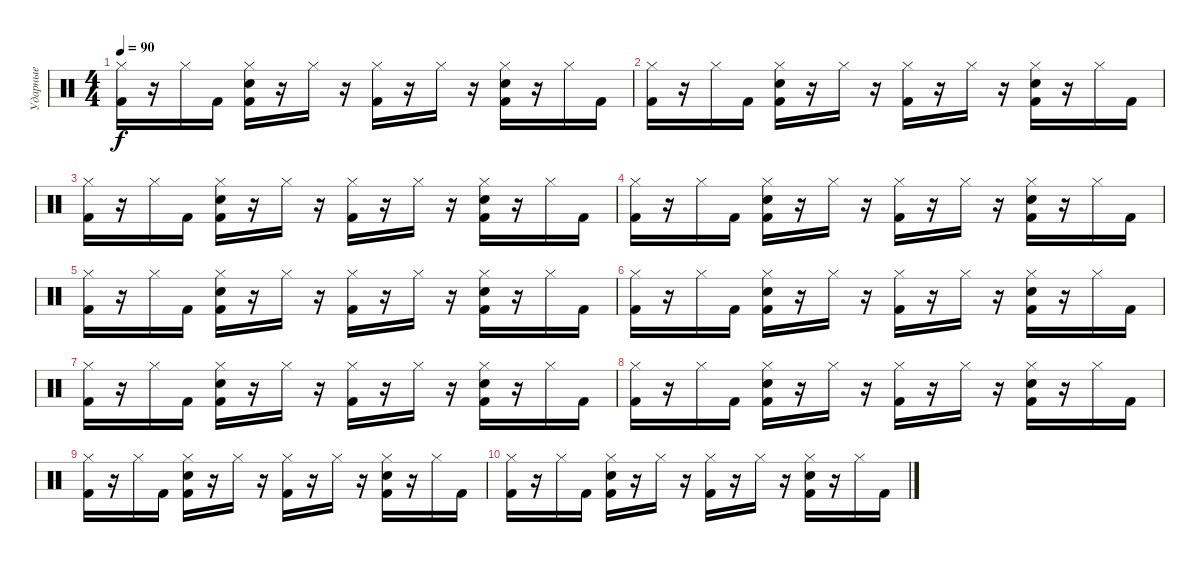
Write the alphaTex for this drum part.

\track ("Ударные" "Ударные") {instrument percussion}
\staff {score}
\articulation defaults
\ts (4 4)
\tempo 90
\clef neutral
\ks c
("Hi-Hat (closed)" "Kick (hit) 2").16{dy f} r.16 "Hi-Hat (closed)".16 "Kick (hit) 2".16 ("Hi-Hat (closed)" "Electric Snare (hit)" "Kick (hit) 2").16 r.16 "Hi-Hat (closed)".16 r.16 ("Hi-Hat (closed)" "Kick (hit) 2").16 r.16 "Hi-Hat (closed)".16 r.16 ("Hi-Hat (closed)" "Electric Snare (hit)" "Kick (hit) 2").16 r.16 "Hi-Hat (closed)".16 "Kick (hit) 2".16 |
("Hi-Hat (closed)" "Kick (hit) 2").16 r.16 "Hi-Hat (closed)".16 "Kick (hit) 2".16 ("Hi-Hat (closed)" "Electric Snare (hit)" "Kick (hit) 2").16 r.16 "Hi-Hat (closed)".16 r.16 ("Hi-Hat (closed)" "Kick (hit) 2").16 r.16 "Hi-Hat (closed)".16 r.16 ("Hi-Hat (closed)" "Electric Snare (hit)" "Kick (hit) 2").16 r.16 "Hi-Hat (closed)".16 "Kick (hit) 2".16 |
("Hi-Hat (closed)" "Kick (hit) 2").16 r.16 "Hi-Hat (closed)".16 "Kick (hit) 2".16 ("Hi-Hat (closed)" "Electric Snare (hit)" "Kick (hit) 2").16 r.16 "Hi-Hat (closed)".16 r.16 ("Hi-Hat (closed)" "Kick (hit) 2").16 r.16 "Hi-Hat (closed)".16 r.16 ("Hi-Hat (closed)" "Electric Snare (hit)" "Kick (hit) 2").16 r.16 "Hi-Hat (closed)".16 "Kick (hit) 2".16 |
("Hi-Hat (closed)" "Kick (hit) 2").16 r.16 "Hi-Hat (closed)".16 "Kick (hit) 2".16 ("Hi-Hat (closed)" "Electric Snare (hit)" "Kick (hit) 2").16 r.16 "Hi-Hat (closed)".16 r.16 ("Hi-Hat (closed)" "Kick (hit) 2").16 r.16 "Hi-Hat (closed)".16 r.16 ("Hi-Hat (closed)" "Electric Snare (hit)" "Kick (hit) 2").16 r.16 "Hi-Hat (closed)".16 "Kick (hit) 2".16 |
("Hi-Hat (closed)" "Kick (hit) 2").16 r.16 "Hi-Hat (closed)".16 "Kick (hit) 2".16 ("Hi-Hat (closed)" "Electric Snare (hit)" "Kick (hit) 2").16 r.16 "Hi-Hat (closed)".16 r.16 ("Hi-Hat (closed)" "Kick (hit) 2").16 r.16 "Hi-Hat (closed)".16 r.16 ("Hi-Hat (closed)" "Electric Snare (hit)" "Kick (hit) 2").16 r.16 "Hi-Hat (closed)".16 "Kick (hit) 2".16 |
("Hi-Hat (closed)" "Kick (hit) 2").16 r.16 "Hi-Hat (closed)".16 "Kick (hit) 2".16 ("Hi-Hat (closed)" "Electric Snare (hit)" "Kick (hit) 2").16 r.16 "Hi-Hat (closed)".16 r.16 ("Hi-Hat (closed)" "Kick (hit) 2").16 r.16 "Hi-Hat (closed)".16 r.16 ("Hi-Hat (closed)" "Electric Snare (hit)" "Kick (hit) 2").16 r.16 "Hi-Hat (closed)".16 "Kick (hit) 2".16 |
("Hi-Hat (closed)" "Kick (hit) 2").16 r.16 "Hi-Hat (closed)".16 "Kick (hit) 2".16 ("Hi-Hat (closed)" "Electric Snare (hit)" "Kick (hit) 2").16 r.16 "Hi-Hat (closed)".16 r.16 ("Hi-Hat (closed)" "Kick (hit) 2").16 r.16 "Hi-Hat (closed)".16 r.16 ("Hi-Hat (closed)" "Electric Snare (hit)" "Kick (hit) 2").16 r.16 "Hi-Hat (closed)".16 "Kick (hit) 2".16 |
("Hi-Hat (closed)" "Kick (hit) 2").16 r.16 "Hi-Hat (closed)".16 "Kick (hit) 2".16 ("Hi-Hat (closed)" "Electric Snare (hit)" "Kick (hit) 2").16 r.16 "Hi-Hat (closed)".16 r.16 ("Hi-Hat (closed)" "Kick (hit) 2").16 r.16 "Hi-Hat (closed)".16 r.16 ("Hi-Hat (closed)" "Electric Snare (hit)" "Kick (hit) 2").16 r.16 "Hi-Hat (closed)".16 "Kick (hit) 2".16 |
("Hi-Hat (closed)" "Kick (hit) 2").16 r.16 "Hi-Hat (closed)".16 "Kick (hit) 2".16 ("Hi-Hat (closed)" "Electric Snare (hit)" "Kick (hit) 2").16 r.16 "Hi-Hat (closed)".16 r.16 ("Hi-Hat (closed)" "Kick (hit) 2").16 r.16 "Hi-Hat (closed)".16 r.16 ("Hi-Hat (closed)" "Electric Snare (hit)" "Kick (hit) 2").16 r.16 "Hi-Hat (closed)".16 "Kick (hit) 2".16 |
("Hi-Hat (closed)" "Kick (hit) 2").16 r.16 "Hi-Hat (closed)".16 "Kick (hit) 2".16 ("Hi-Hat (closed)" "Electric Snare (hit)" "Kick (hit) 2").16 r.16 "Hi-Hat (closed)".16 r.16 ("Hi-Hat (closed)" "Kick (hit) 2").16 r.16 "Hi-Hat (closed)".16 r.16 ("Hi-Hat (closed)" "Electric Snare (hit)" "Kick (hit) 2").16 r.16 "Hi-Hat (closed)".16 "Kick (hit) 2".16
